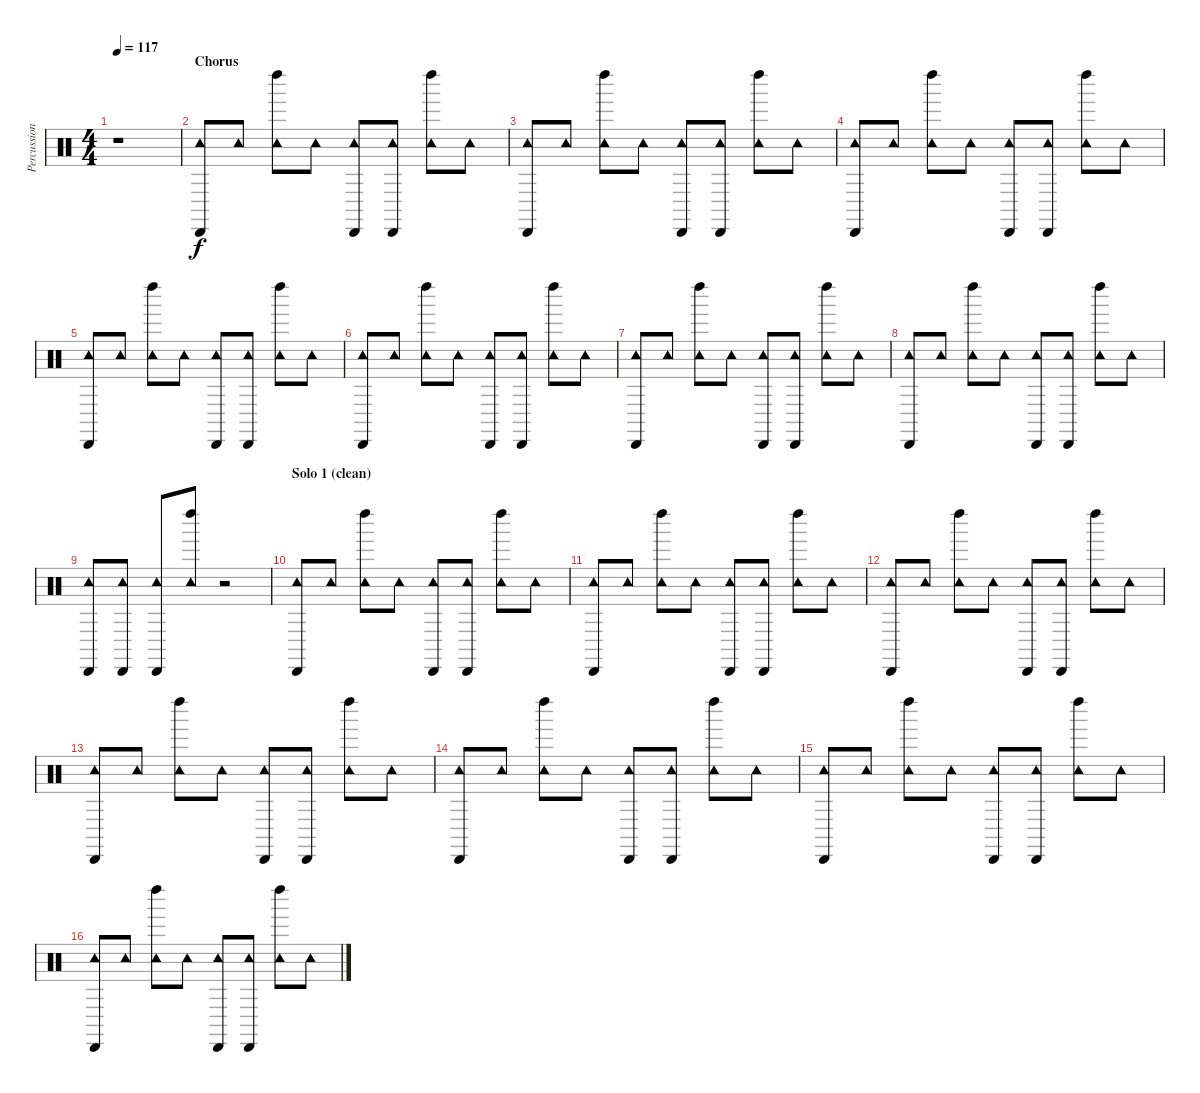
\track ("Percussion" "Percussion") {instrument percussion}
\staff {score}
\articulation defaults
\ts (4 4)
\tempo 117
\clef neutral
\ks c
r.1{dy f} |
\section ("" "Chorus")
("Tambourine (hit)" "Cabasa (hit)").8 "Tambourine (hit)".8 ("Tambourine (hit)" "Left Maraca (hit)").8 "Tambourine (hit)".8 ("Tambourine (hit)" "Cabasa (hit)").8 ("Tambourine (hit)" "Cabasa (hit)").8 ("Tambourine (hit)" "Left Maraca (hit)").8 "Tambourine (hit)".8 |
("Tambourine (hit)" "Cabasa (hit)").8 "Tambourine (hit)".8 ("Tambourine (hit)" "Left Maraca (hit)").8 "Tambourine (hit)".8 ("Tambourine (hit)" "Cabasa (hit)").8 ("Tambourine (hit)" "Cabasa (hit)").8 ("Tambourine (hit)" "Left Maraca (hit)").8 "Tambourine (hit)".8 |
("Tambourine (hit)" "Cabasa (hit)").8 "Tambourine (hit)".8 ("Tambourine (hit)" "Left Maraca (hit)").8 "Tambourine (hit)".8 ("Tambourine (hit)" "Cabasa (hit)").8 ("Tambourine (hit)" "Cabasa (hit)").8 ("Tambourine (hit)" "Left Maraca (hit)").8 "Tambourine (hit)".8 |
("Tambourine (hit)" "Cabasa (hit)").8 "Tambourine (hit)".8 ("Tambourine (hit)" "Left Maraca (hit)").8 "Tambourine (hit)".8 ("Tambourine (hit)" "Cabasa (hit)").8 ("Tambourine (hit)" "Cabasa (hit)").8 ("Tambourine (hit)" "Left Maraca (hit)").8 "Tambourine (hit)".8 |
("Tambourine (hit)" "Cabasa (hit)").8 "Tambourine (hit)".8 ("Tambourine (hit)" "Left Maraca (hit)").8 "Tambourine (hit)".8 ("Tambourine (hit)" "Cabasa (hit)").8 ("Tambourine (hit)" "Cabasa (hit)").8 ("Tambourine (hit)" "Left Maraca (hit)").8 "Tambourine (hit)".8 |
("Tambourine (hit)" "Cabasa (hit)").8 "Tambourine (hit)".8 ("Tambourine (hit)" "Left Maraca (hit)").8 "Tambourine (hit)".8 ("Tambourine (hit)" "Cabasa (hit)").8 ("Tambourine (hit)" "Cabasa (hit)").8 ("Tambourine (hit)" "Left Maraca (hit)").8 "Tambourine (hit)".8 |
("Tambourine (hit)" "Cabasa (hit)").8 "Tambourine (hit)".8 ("Tambourine (hit)" "Left Maraca (hit)").8 "Tambourine (hit)".8 ("Tambourine (hit)" "Cabasa (hit)").8 ("Tambourine (hit)" "Cabasa (hit)").8 ("Tambourine (hit)" "Left Maraca (hit)").8 "Tambourine (hit)".8 |
("Tambourine (hit)" "Cabasa (hit)").8 ("Tambourine (hit)" "Cabasa (hit)").8 ("Tambourine (hit)" "Cabasa (hit)").8 ("Tambourine (hit)" "Left Maraca (hit)").8 r.2 |
\section ("" "Solo 1 (clean)")
("Tambourine (hit)" "Cabasa (hit)").8 "Tambourine (hit)".8 ("Tambourine (hit)" "Left Maraca (hit)").8 "Tambourine (hit)".8 ("Tambourine (hit)" "Cabasa (hit)").8 ("Tambourine (hit)" "Cabasa (hit)").8 ("Tambourine (hit)" "Left Maraca (hit)").8 "Tambourine (hit)".8 |
("Tambourine (hit)" "Cabasa (hit)").8 "Tambourine (hit)".8 ("Tambourine (hit)" "Left Maraca (hit)").8 "Tambourine (hit)".8 ("Tambourine (hit)" "Cabasa (hit)").8 ("Tambourine (hit)" "Cabasa (hit)").8 ("Tambourine (hit)" "Left Maraca (hit)").8 "Tambourine (hit)".8 |
("Tambourine (hit)" "Cabasa (hit)").8 "Tambourine (hit)".8 ("Tambourine (hit)" "Left Maraca (hit)").8 "Tambourine (hit)".8 ("Tambourine (hit)" "Cabasa (hit)").8 ("Tambourine (hit)" "Cabasa (hit)").8 ("Tambourine (hit)" "Left Maraca (hit)").8 "Tambourine (hit)".8 |
("Tambourine (hit)" "Cabasa (hit)").8 "Tambourine (hit)".8 ("Tambourine (hit)" "Left Maraca (hit)").8 "Tambourine (hit)".8 ("Tambourine (hit)" "Cabasa (hit)").8 ("Tambourine (hit)" "Cabasa (hit)").8 ("Tambourine (hit)" "Left Maraca (hit)").8 "Tambourine (hit)".8 |
("Tambourine (hit)" "Cabasa (hit)").8 "Tambourine (hit)".8 ("Tambourine (hit)" "Left Maraca (hit)").8 "Tambourine (hit)".8 ("Tambourine (hit)" "Cabasa (hit)").8 ("Tambourine (hit)" "Cabasa (hit)").8 ("Tambourine (hit)" "Left Maraca (hit)").8 "Tambourine (hit)".8 |
("Tambourine (hit)" "Cabasa (hit)").8 "Tambourine (hit)".8 ("Tambourine (hit)" "Left Maraca (hit)").8 "Tambourine (hit)".8 ("Tambourine (hit)" "Cabasa (hit)").8 ("Tambourine (hit)" "Cabasa (hit)").8 ("Tambourine (hit)" "Left Maraca (hit)").8 "Tambourine (hit)".8 |
("Tambourine (hit)" "Cabasa (hit)").8 "Tambourine (hit)".8 ("Tambourine (hit)" "Left Maraca (hit)").8 "Tambourine (hit)".8 ("Tambourine (hit)" "Cabasa (hit)").8 ("Tambourine (hit)" "Cabasa (hit)").8 ("Tambourine (hit)" "Left Maraca (hit)").8 "Tambourine (hit)".8
